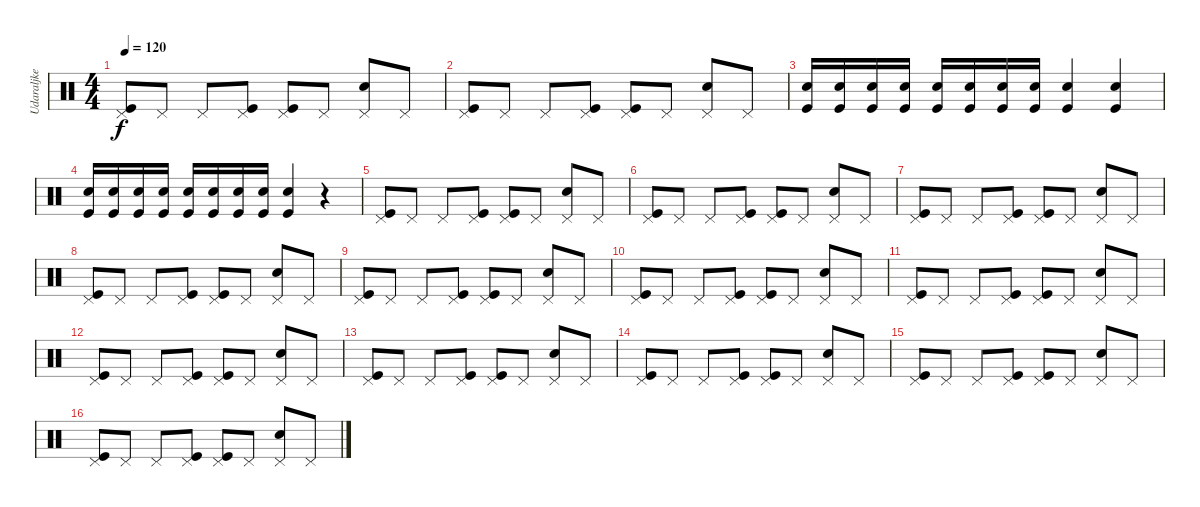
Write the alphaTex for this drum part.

\track ("Udaraljke" "Udaraljke") {instrument percussion}
\staff {score}
\articulation defaults
\ts (4 4)
\tempo 120
\clef neutral
\ks c
("Pedal Hi-Hat (hit)" "Kick (hit)").8{dy f} "Pedal Hi-Hat (hit)".8 "Pedal Hi-Hat (hit)".8 ("Pedal Hi-Hat (hit)" "Kick (hit)").8 ("Pedal Hi-Hat (hit)" "Kick (hit)").8 "Pedal Hi-Hat (hit)".8 ("Pedal Hi-Hat (hit)" "Snare (hit) 2").8 "Pedal Hi-Hat (hit)".8 |
("Pedal Hi-Hat (hit)" "Kick (hit)").8 "Pedal Hi-Hat (hit)".8 "Pedal Hi-Hat (hit)".8 ("Pedal Hi-Hat (hit)" "Kick (hit)").8 ("Pedal Hi-Hat (hit)" "Kick (hit)").8 "Pedal Hi-Hat (hit)".8 ("Pedal Hi-Hat (hit)" "Snare (hit) 2").8 "Pedal Hi-Hat (hit)".8 |
("Kick (hit)" "Snare (hit) 2").16 ("Kick (hit)" "Snare (hit) 2").16 ("Kick (hit)" "Snare (hit) 2").16 ("Kick (hit)" "Snare (hit) 2").16 ("Kick (hit)" "Snare (hit) 2").16 ("Kick (hit)" "Snare (hit) 2").16 ("Kick (hit)" "Snare (hit) 2").16 ("Kick (hit)" "Snare (hit) 2").16 ("Kick (hit)" "Snare (hit) 2").4 ("Kick (hit)" "Snare (hit) 2").4 |
("Kick (hit)" "Snare (hit) 2").16 ("Kick (hit)" "Snare (hit) 2").16 ("Kick (hit)" "Snare (hit) 2").16 ("Kick (hit)" "Snare (hit) 2").16 ("Kick (hit)" "Snare (hit) 2").16 ("Kick (hit)" "Snare (hit) 2").16 ("Kick (hit)" "Snare (hit) 2").16 ("Kick (hit)" "Snare (hit) 2").16 ("Kick (hit)" "Snare (hit) 2").4 r.4 |
("Pedal Hi-Hat (hit)" "Kick (hit)").8 "Pedal Hi-Hat (hit)".8 "Pedal Hi-Hat (hit)".8 ("Pedal Hi-Hat (hit)" "Kick (hit)").8 ("Pedal Hi-Hat (hit)" "Kick (hit)").8 "Pedal Hi-Hat (hit)".8 ("Pedal Hi-Hat (hit)" "Snare (hit) 2").8 "Pedal Hi-Hat (hit)".8 |
("Pedal Hi-Hat (hit)" "Kick (hit)").8 "Pedal Hi-Hat (hit)".8 "Pedal Hi-Hat (hit)".8 ("Pedal Hi-Hat (hit)" "Kick (hit)").8 ("Pedal Hi-Hat (hit)" "Kick (hit)").8 "Pedal Hi-Hat (hit)".8 ("Pedal Hi-Hat (hit)" "Snare (hit) 2").8 "Pedal Hi-Hat (hit)".8 |
("Pedal Hi-Hat (hit)" "Kick (hit)").8 "Pedal Hi-Hat (hit)".8 "Pedal Hi-Hat (hit)".8 ("Pedal Hi-Hat (hit)" "Kick (hit)").8 ("Pedal Hi-Hat (hit)" "Kick (hit)").8 "Pedal Hi-Hat (hit)".8 ("Pedal Hi-Hat (hit)" "Snare (hit) 2").8 "Pedal Hi-Hat (hit)".8 |
("Pedal Hi-Hat (hit)" "Kick (hit)").8 "Pedal Hi-Hat (hit)".8 "Pedal Hi-Hat (hit)".8 ("Pedal Hi-Hat (hit)" "Kick (hit)").8 ("Pedal Hi-Hat (hit)" "Kick (hit)").8 "Pedal Hi-Hat (hit)".8 ("Pedal Hi-Hat (hit)" "Snare (hit) 2").8 "Pedal Hi-Hat (hit)".8 |
("Pedal Hi-Hat (hit)" "Kick (hit)").8 "Pedal Hi-Hat (hit)".8 "Pedal Hi-Hat (hit)".8 ("Pedal Hi-Hat (hit)" "Kick (hit)").8 ("Pedal Hi-Hat (hit)" "Kick (hit)").8 "Pedal Hi-Hat (hit)".8 ("Pedal Hi-Hat (hit)" "Snare (hit) 2").8 "Pedal Hi-Hat (hit)".8 |
("Pedal Hi-Hat (hit)" "Kick (hit)").8 "Pedal Hi-Hat (hit)".8 "Pedal Hi-Hat (hit)".8 ("Pedal Hi-Hat (hit)" "Kick (hit)").8 ("Pedal Hi-Hat (hit)" "Kick (hit)").8 "Pedal Hi-Hat (hit)".8 ("Pedal Hi-Hat (hit)" "Snare (hit) 2").8 "Pedal Hi-Hat (hit)".8 |
("Pedal Hi-Hat (hit)" "Kick (hit)").8 "Pedal Hi-Hat (hit)".8 "Pedal Hi-Hat (hit)".8 ("Pedal Hi-Hat (hit)" "Kick (hit)").8 ("Pedal Hi-Hat (hit)" "Kick (hit)").8 "Pedal Hi-Hat (hit)".8 ("Pedal Hi-Hat (hit)" "Snare (hit) 2").8 "Pedal Hi-Hat (hit)".8 |
("Pedal Hi-Hat (hit)" "Kick (hit)").8 "Pedal Hi-Hat (hit)".8 "Pedal Hi-Hat (hit)".8 ("Pedal Hi-Hat (hit)" "Kick (hit)").8 ("Pedal Hi-Hat (hit)" "Kick (hit)").8 "Pedal Hi-Hat (hit)".8 ("Pedal Hi-Hat (hit)" "Snare (hit) 2").8 "Pedal Hi-Hat (hit)".8 |
("Pedal Hi-Hat (hit)" "Kick (hit)").8 "Pedal Hi-Hat (hit)".8 "Pedal Hi-Hat (hit)".8 ("Pedal Hi-Hat (hit)" "Kick (hit)").8 ("Pedal Hi-Hat (hit)" "Kick (hit)").8 "Pedal Hi-Hat (hit)".8 ("Pedal Hi-Hat (hit)" "Snare (hit) 2").8 "Pedal Hi-Hat (hit)".8 |
("Pedal Hi-Hat (hit)" "Kick (hit)").8 "Pedal Hi-Hat (hit)".8 "Pedal Hi-Hat (hit)".8 ("Pedal Hi-Hat (hit)" "Kick (hit)").8 ("Pedal Hi-Hat (hit)" "Kick (hit)").8 "Pedal Hi-Hat (hit)".8 ("Pedal Hi-Hat (hit)" "Snare (hit) 2").8 "Pedal Hi-Hat (hit)".8 |
("Pedal Hi-Hat (hit)" "Kick (hit)").8 "Pedal Hi-Hat (hit)".8 "Pedal Hi-Hat (hit)".8 ("Pedal Hi-Hat (hit)" "Kick (hit)").8 ("Pedal Hi-Hat (hit)" "Kick (hit)").8 "Pedal Hi-Hat (hit)".8 ("Pedal Hi-Hat (hit)" "Snare (hit) 2").8 "Pedal Hi-Hat (hit)".8 |
("Pedal Hi-Hat (hit)" "Kick (hit)").8 "Pedal Hi-Hat (hit)".8 "Pedal Hi-Hat (hit)".8 ("Pedal Hi-Hat (hit)" "Kick (hit)").8 ("Pedal Hi-Hat (hit)" "Kick (hit)").8 "Pedal Hi-Hat (hit)".8 ("Pedal Hi-Hat (hit)" "Snare (hit) 2").8 "Pedal Hi-Hat (hit)".8
